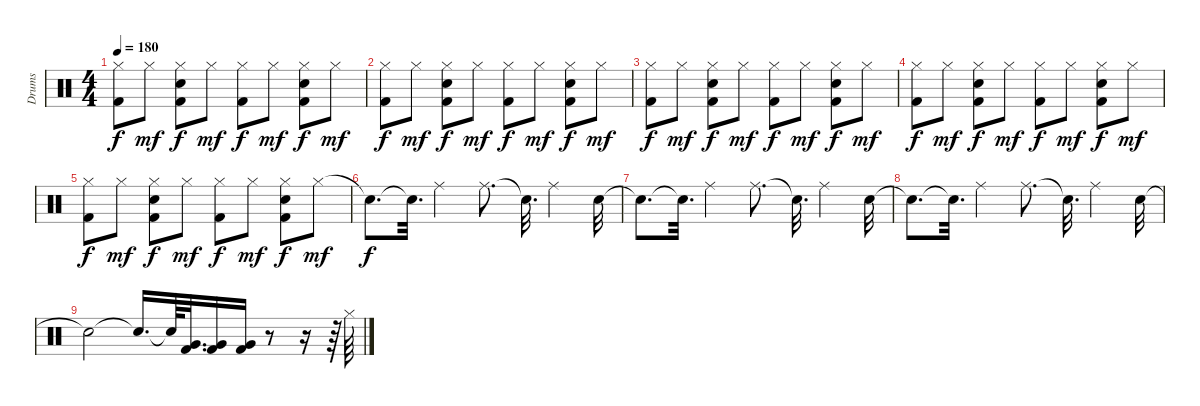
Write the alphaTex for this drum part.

\track ("Drums" "Drums") {instrument percussion}
\staff {score}
\articulation defaults
\ts (4 4)
\tempo 180
\clef neutral
\ks c
("Hi-Hat (closed)" "Kick (hit) 2").8{dy f} "Hi-Hat (closed)".8{dy mf} ("Hi-Hat (closed)" "Electric Snare (hit)" "Kick (hit) 2").8{dy f} "Hi-Hat (closed)".8{dy mf} ("Hi-Hat (closed)" "Kick (hit) 2").8{dy f} "Hi-Hat (closed)".8{dy mf} ("Hi-Hat (closed)" "Electric Snare (hit)" "Kick (hit) 2").8{dy f} "Hi-Hat (closed)".8{dy mf} |
("Hi-Hat (closed)" "Kick (hit) 2").8{dy f} "Hi-Hat (closed)".8{dy mf} ("Hi-Hat (closed)" "Electric Snare (hit)" "Kick (hit) 2").8{dy f} "Hi-Hat (closed)".8{dy mf} ("Hi-Hat (closed)" "Kick (hit) 2").8{dy f} "Hi-Hat (closed)".8{dy mf} ("Hi-Hat (closed)" "Electric Snare (hit)" "Kick (hit) 2").8{dy f} "Hi-Hat (closed)".8{dy mf} |
("Hi-Hat (closed)" "Kick (hit) 2").8{dy f} "Hi-Hat (closed)".8{dy mf} ("Hi-Hat (closed)" "Electric Snare (hit)" "Kick (hit) 2").8{dy f} "Hi-Hat (closed)".8{dy mf} ("Hi-Hat (closed)" "Kick (hit) 2").8{dy f} "Hi-Hat (closed)".8{dy mf} ("Hi-Hat (closed)" "Electric Snare (hit)" "Kick (hit) 2").8{dy f} "Hi-Hat (closed)".8{dy mf} |
("Hi-Hat (closed)" "Kick (hit) 2").8{dy f} "Hi-Hat (closed)".8{dy mf} ("Hi-Hat (closed)" "Electric Snare (hit)" "Kick (hit) 2").8{dy f} "Hi-Hat (closed)".8{dy mf} ("Hi-Hat (closed)" "Kick (hit) 2").8{dy f} "Hi-Hat (closed)".8{dy mf} ("Hi-Hat (closed)" "Electric Snare (hit)" "Kick (hit) 2").8{dy f} "Hi-Hat (closed)".8{dy mf} |
("Hi-Hat (closed)" "Kick (hit) 2").8{dy f} "Hi-Hat (closed)".8{dy mf} ("Hi-Hat (closed)" "Electric Snare (hit)" "Kick (hit) 2").8{dy f} "Hi-Hat (closed)".8{dy mf} ("Hi-Hat (closed)" "Kick (hit) 2").8{dy f} "Hi-Hat (closed)".8{dy mf} ("Hi-Hat (closed)" "Electric Snare (hit)" "Kick (hit) 2").8{dy f} "Hi-Hat (closed)".8{dy mf} |
"Snare (hit)"{t}.8{d dy f} "Snare (hit)"{t}.32{d} "Ride (middle)".4 "Ride (middle)".8{d} "Snare (hit)"{t}.32{d} "Ride (middle)".4 "Snare (hit) 2".32 |
"Snare (hit)"{t}.8{d} "Snare (hit)"{t}.32{d} "Ride (middle)".4 "Ride (middle)".8{d} "Snare (hit)"{t}.32{d} "Ride (middle)".4 "Snare (hit) 2".32 |
"Snare (hit)"{t}.8{d} "Snare (hit)"{t}.32{d} "Ride (middle)".4 "Ride (middle)".8{d} "Snare (hit)"{t}.32{d} "Ride (middle)".4 "Snare (hit) 2".32 |
"Snare (hit)"{t}.2 "Snare (hit)"{t}.16{d} "Snare (hit)"{t}.64 ("Kick (hit) 2" "Very Low Tom (hit)").32{d} ("Kick (hit) 2" "Very Low Tom (hit)").16 ("Very Low Tom (hit)" "Kick (hit) 2").16 r.8 r.16 r.64 "Hi-Hat (closed)".64
